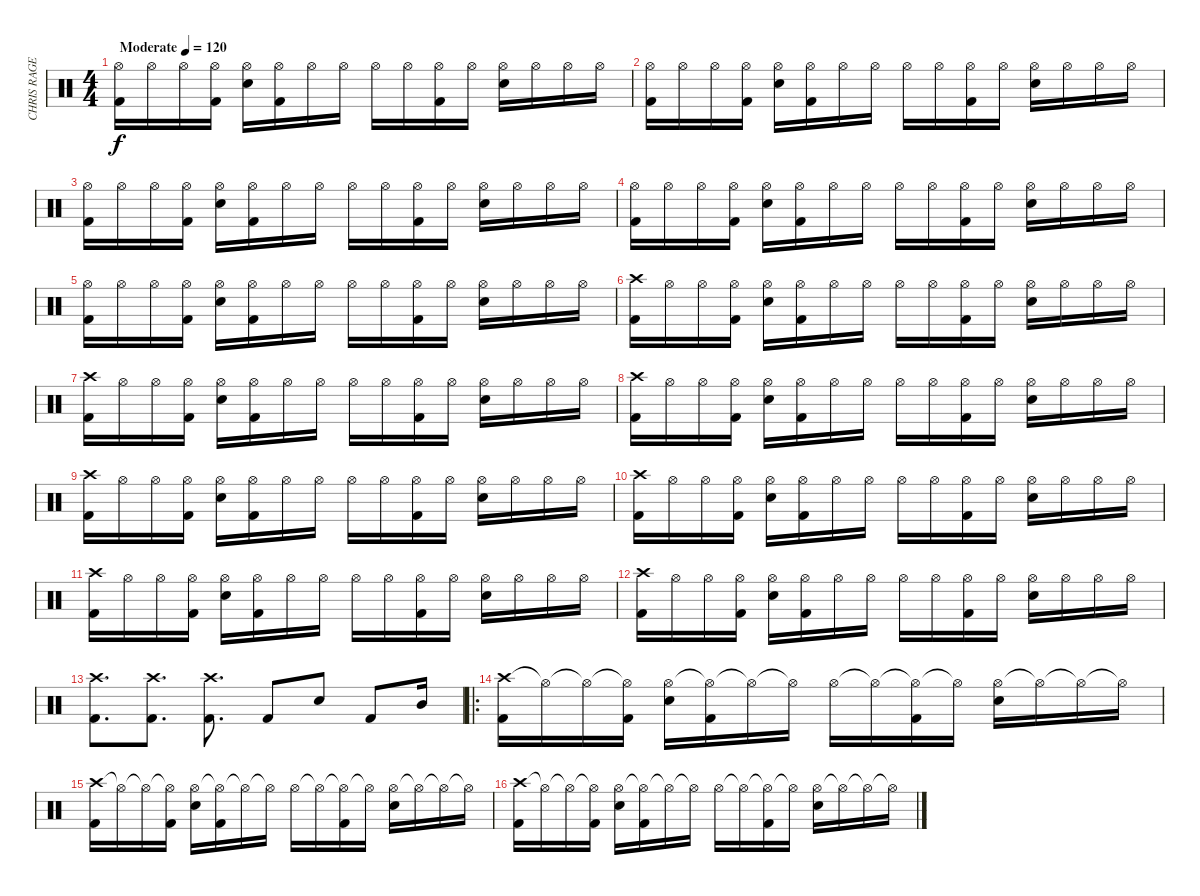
\track ("CHRIS RAGE" "CHRIS RAGE") {instrument percussion}
\staff {score}
\articulation defaults
\ts (4 4)
\tempo (120 "Moderate")
\clef neutral
\ks c
("Hi-Hat (open)" "Kick (hit) 2").16{dy f} "Hi-Hat (open)".16 "Hi-Hat (open)".16 ("Hi-Hat (open)" "Kick (hit) 2").16 ("Hi-Hat (open)" "Electric Snare (hit)").16 ("Hi-Hat (open)" "Kick (hit) 2").16 "Hi-Hat (open)".16 "Hi-Hat (open)".16 "Hi-Hat (open)".16 "Hi-Hat (open)".16 ("Hi-Hat (open)" "Kick (hit) 2").16 "Hi-Hat (open)".16 ("Hi-Hat (open)" "Electric Snare (hit)").16 "Hi-Hat (open)".16 "Hi-Hat (open)".16 "Hi-Hat (open)".16 |
("Hi-Hat (open)" "Kick (hit) 2").16 "Hi-Hat (open)".16 "Hi-Hat (open)".16 ("Hi-Hat (open)" "Kick (hit) 2").16 ("Hi-Hat (open)" "Electric Snare (hit)").16 ("Hi-Hat (open)" "Kick (hit) 2").16 "Hi-Hat (open)".16 "Hi-Hat (open)".16 "Hi-Hat (open)".16 "Hi-Hat (open)".16 ("Hi-Hat (open)" "Kick (hit) 2").16 "Hi-Hat (open)".16 ("Hi-Hat (open)" "Electric Snare (hit)").16 "Hi-Hat (open)".16 "Hi-Hat (open)".16 "Hi-Hat (open)".16 |
("Hi-Hat (open)" "Kick (hit) 2").16 "Hi-Hat (open)".16 "Hi-Hat (open)".16 ("Hi-Hat (open)" "Kick (hit) 2").16 ("Hi-Hat (open)" "Electric Snare (hit)").16 ("Hi-Hat (open)" "Kick (hit) 2").16 "Hi-Hat (open)".16 "Hi-Hat (open)".16 "Hi-Hat (open)".16 "Hi-Hat (open)".16 ("Hi-Hat (open)" "Kick (hit) 2").16 "Hi-Hat (open)".16 ("Hi-Hat (open)" "Electric Snare (hit)").16 "Hi-Hat (open)".16 "Hi-Hat (open)".16 "Hi-Hat (open)".16 |
("Hi-Hat (open)" "Kick (hit) 2").16 "Hi-Hat (open)".16 "Hi-Hat (open)".16 ("Hi-Hat (open)" "Kick (hit) 2").16 ("Hi-Hat (open)" "Electric Snare (hit)").16 ("Hi-Hat (open)" "Kick (hit) 2").16 "Hi-Hat (open)".16 "Hi-Hat (open)".16 "Hi-Hat (open)".16 "Hi-Hat (open)".16 ("Hi-Hat (open)" "Kick (hit) 2").16 "Hi-Hat (open)".16 ("Hi-Hat (open)" "Electric Snare (hit)").16 "Hi-Hat (open)".16 "Hi-Hat (open)".16 "Hi-Hat (open)".16 |
("Hi-Hat (open)" "Kick (hit) 2").16 "Hi-Hat (open)".16 "Hi-Hat (open)".16 ("Hi-Hat (open)" "Kick (hit) 2").16 ("Hi-Hat (open)" "Electric Snare (hit)").16 ("Hi-Hat (open)" "Kick (hit) 2").16 "Hi-Hat (open)".16 "Hi-Hat (open)".16 "Hi-Hat (open)".16 "Hi-Hat (open)".16 ("Hi-Hat (open)" "Kick (hit) 2").16 "Hi-Hat (open)".16 ("Hi-Hat (open)" "Electric Snare (hit)").16 "Hi-Hat (open)".16 "Hi-Hat (open)".16 "Hi-Hat (open)".16 |
("Crash high (hit)" "Kick (hit) 2").16 "Hi-Hat (open)".16 "Hi-Hat (open)".16 ("Hi-Hat (open)" "Kick (hit) 2").16 ("Hi-Hat (open)" "Electric Snare (hit)").16 ("Hi-Hat (open)" "Kick (hit) 2").16 "Hi-Hat (open)".16 "Hi-Hat (open)".16 "Hi-Hat (open)".16 "Hi-Hat (open)".16 ("Hi-Hat (open)" "Kick (hit) 2").16 "Hi-Hat (open)".16 ("Hi-Hat (open)" "Electric Snare (hit)").16 "Hi-Hat (open)".16 "Hi-Hat (open)".16 "Hi-Hat (open)".16 |
("Crash high (hit)" "Kick (hit) 2").16 "Hi-Hat (open)".16 "Hi-Hat (open)".16 ("Hi-Hat (open)" "Kick (hit) 2").16 ("Hi-Hat (open)" "Electric Snare (hit)").16 ("Hi-Hat (open)" "Kick (hit) 2").16 "Hi-Hat (open)".16 "Hi-Hat (open)".16 "Hi-Hat (open)".16 "Hi-Hat (open)".16 ("Hi-Hat (open)" "Kick (hit) 2").16 "Hi-Hat (open)".16 ("Hi-Hat (open)" "Electric Snare (hit)").16 "Hi-Hat (open)".16 "Hi-Hat (open)".16 "Hi-Hat (open)".16 |
("Crash high (hit)" "Kick (hit) 2").16 "Hi-Hat (open)".16 "Hi-Hat (open)".16 ("Hi-Hat (open)" "Kick (hit) 2").16 ("Hi-Hat (open)" "Electric Snare (hit)").16 ("Hi-Hat (open)" "Kick (hit) 2").16 "Hi-Hat (open)".16 "Hi-Hat (open)".16 "Hi-Hat (open)".16 "Hi-Hat (open)".16 ("Hi-Hat (open)" "Kick (hit) 2").16 "Hi-Hat (open)".16 ("Hi-Hat (open)" "Electric Snare (hit)").16 "Hi-Hat (open)".16 "Hi-Hat (open)".16 "Hi-Hat (open)".16 |
("Crash high (hit)" "Kick (hit) 2").16 "Hi-Hat (open)".16 "Hi-Hat (open)".16 ("Hi-Hat (open)" "Kick (hit) 2").16 ("Hi-Hat (open)" "Electric Snare (hit)").16 ("Hi-Hat (open)" "Kick (hit) 2").16 "Hi-Hat (open)".16 "Hi-Hat (open)".16 "Hi-Hat (open)".16 "Hi-Hat (open)".16 ("Hi-Hat (open)" "Kick (hit) 2").16 "Hi-Hat (open)".16 ("Hi-Hat (open)" "Electric Snare (hit)").16 "Hi-Hat (open)".16 "Hi-Hat (open)".16 "Hi-Hat (open)".16 |
("Crash high (hit)" "Kick (hit) 2").16 "Hi-Hat (open)".16 "Hi-Hat (open)".16 ("Hi-Hat (open)" "Kick (hit) 2").16 ("Hi-Hat (open)" "Electric Snare (hit)").16 ("Hi-Hat (open)" "Kick (hit) 2").16 "Hi-Hat (open)".16 "Hi-Hat (open)".16 "Hi-Hat (open)".16 "Hi-Hat (open)".16 ("Hi-Hat (open)" "Kick (hit) 2").16 "Hi-Hat (open)".16 ("Hi-Hat (open)" "Electric Snare (hit)").16 "Hi-Hat (open)".16 "Hi-Hat (open)".16 "Hi-Hat (open)".16 |
("Crash high (hit)" "Kick (hit) 2").16 "Hi-Hat (open)".16 "Hi-Hat (open)".16 ("Hi-Hat (open)" "Kick (hit) 2").16 ("Hi-Hat (open)" "Electric Snare (hit)").16 ("Hi-Hat (open)" "Kick (hit) 2").16 "Hi-Hat (open)".16 "Hi-Hat (open)".16 "Hi-Hat (open)".16 "Hi-Hat (open)".16 ("Hi-Hat (open)" "Kick (hit) 2").16 "Hi-Hat (open)".16 ("Hi-Hat (open)" "Electric Snare (hit)").16 "Hi-Hat (open)".16 "Hi-Hat (open)".16 "Hi-Hat (open)".16 |
("Crash high (hit)" "Kick (hit) 2").16 "Hi-Hat (open)".16 "Hi-Hat (open)".16 ("Hi-Hat (open)" "Kick (hit) 2").16 ("Hi-Hat (open)" "Electric Snare (hit)").16 ("Hi-Hat (open)" "Kick (hit) 2").16 "Hi-Hat (open)".16 "Hi-Hat (open)".16 "Hi-Hat (open)".16 "Hi-Hat (open)".16 ("Hi-Hat (open)" "Kick (hit) 2").16 "Hi-Hat (open)".16 ("Hi-Hat (open)" "Electric Snare (hit)").16 "Hi-Hat (open)".16 "Hi-Hat (open)".16 "Hi-Hat (open)".16 |
("Crash high (hit)" "Kick (hit) 2").8{d} ("Crash high (hit)" "Kick (hit) 2").8{d} ("Crash high (hit)" "Kick (hit) 2").8{d} "Kick (hit) 2".8 "Electric Snare (hit)".8 "Kick (hit) 2".8 "Mid Tom (hit)".16 |
\ro
("Crash high (hit)" "Kick (hit) 2").16 "Hi-Hat (open)"{t}.16 "Hi-Hat (open)"{t}.16 ("Hi-Hat (open)"{t} "Kick (hit) 2").16 ("Hi-Hat (open)" "Electric Snare (hit)").16 ("Hi-Hat (open)"{t} "Kick (hit) 2").16 "Hi-Hat (open)"{t}.16 "Hi-Hat (open)"{t}.16 "Hi-Hat (open)".16 "Hi-Hat (open)"{t}.16 ("Hi-Hat (open)"{t} "Kick (hit) 2").16 "Hi-Hat (open)"{t}.16 ("Hi-Hat (open)" "Electric Snare (hit)").16 "Hi-Hat (open)"{t}.16 "Hi-Hat (open)"{t}.16 "Hi-Hat (open)"{t}.16 |
("Crash high (hit)" "Kick (hit) 2").16 "Hi-Hat (open)"{t}.16 "Hi-Hat (open)"{t}.16 ("Hi-Hat (open)"{t} "Kick (hit) 2").16 ("Hi-Hat (open)" "Electric Snare (hit)").16 ("Hi-Hat (open)"{t} "Kick (hit) 2").16 "Hi-Hat (open)"{t}.16 "Hi-Hat (open)"{t}.16 "Hi-Hat (open)".16 "Hi-Hat (open)"{t}.16 ("Hi-Hat (open)"{t} "Kick (hit) 2").16 "Hi-Hat (open)"{t}.16 ("Hi-Hat (open)" "Electric Snare (hit)").16 "Hi-Hat (open)"{t}.16 "Hi-Hat (open)"{t}.16 "Hi-Hat (open)"{t}.16 |
("Crash high (hit)" "Kick (hit) 2").16 "Hi-Hat (open)"{t}.16 "Hi-Hat (open)"{t}.16 ("Hi-Hat (open)"{t} "Kick (hit) 2").16 ("Hi-Hat (open)" "Electric Snare (hit)").16 ("Hi-Hat (open)"{t} "Kick (hit) 2").16 "Hi-Hat (open)"{t}.16 "Hi-Hat (open)"{t}.16 "Hi-Hat (open)".16 "Hi-Hat (open)"{t}.16 ("Hi-Hat (open)"{t} "Kick (hit) 2").16 "Hi-Hat (open)"{t}.16 ("Hi-Hat (open)" "Electric Snare (hit)").16 "Hi-Hat (open)"{t}.16 "Hi-Hat (open)"{t}.16 "Hi-Hat (open)"{t}.16
